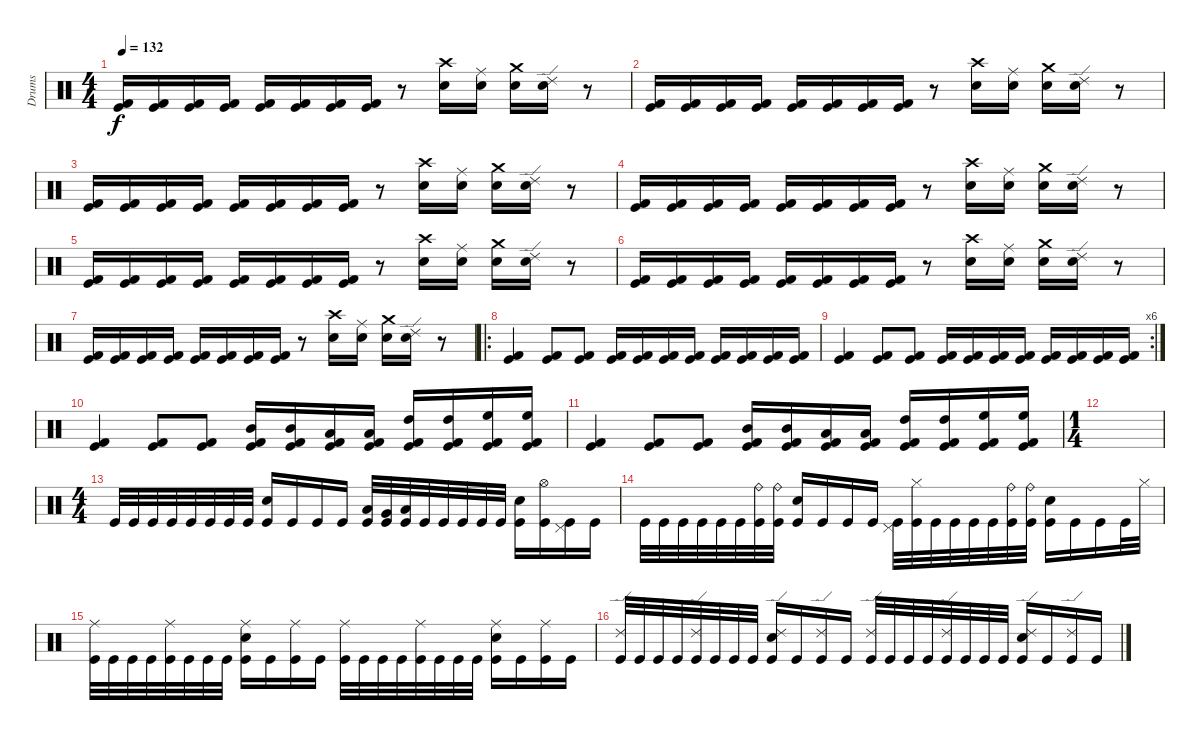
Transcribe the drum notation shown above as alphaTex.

\track ("Drums" "Drums") {instrument percussion}
\staff {score}
\articulation defaults
\ts (4 4)
\tempo 132
\clef neutral
\ks c
("Kick (hit)" "Kick (hit) 2").16{dy f} ("Kick (hit)" "Kick (hit) 2").16 ("Kick (hit)" "Kick (hit) 2").16 ("Kick (hit)" "Kick (hit) 2").16 ("Kick (hit)" "Kick (hit) 2").16 ("Kick (hit)" "Kick (hit) 2").16 ("Kick (hit)" "Kick (hit) 2").16 ("Kick (hit)" "Kick (hit) 2").16 r.8 ("Snare (hit) 2" "Crash high (hit)").16 ("Ride (middle)" "Snare (hit) 2").16 ("Snare (hit) 2" "Crash medium (hit)").16 ("Ride (edge) 2" "Snare (hit) 2").16 r.8 |
("Kick (hit)" "Kick (hit) 2").16 ("Kick (hit)" "Kick (hit) 2").16 ("Kick (hit)" "Kick (hit) 2").16 ("Kick (hit)" "Kick (hit) 2").16 ("Kick (hit)" "Kick (hit) 2").16 ("Kick (hit)" "Kick (hit) 2").16 ("Kick (hit)" "Kick (hit) 2").16 ("Kick (hit)" "Kick (hit) 2").16 r.8 ("Snare (hit) 2" "Crash high (hit)").16 ("Ride (middle)" "Snare (hit) 2").16 ("Snare (hit) 2" "Crash medium (hit)").16 ("Ride (edge) 2" "Snare (hit) 2").16 r.8 |
("Kick (hit)" "Kick (hit) 2").16 ("Kick (hit)" "Kick (hit) 2").16 ("Kick (hit)" "Kick (hit) 2").16 ("Kick (hit)" "Kick (hit) 2").16 ("Kick (hit)" "Kick (hit) 2").16 ("Kick (hit)" "Kick (hit) 2").16 ("Kick (hit)" "Kick (hit) 2").16 ("Kick (hit)" "Kick (hit) 2").16 r.8 ("Snare (hit) 2" "Crash high (hit)").16 ("Ride (middle)" "Snare (hit) 2").16 ("Snare (hit) 2" "Crash medium (hit)").16 ("Ride (edge) 2" "Snare (hit) 2").16 r.8 |
("Kick (hit)" "Kick (hit) 2").16 ("Kick (hit)" "Kick (hit) 2").16 ("Kick (hit)" "Kick (hit) 2").16 ("Kick (hit)" "Kick (hit) 2").16 ("Kick (hit)" "Kick (hit) 2").16 ("Kick (hit)" "Kick (hit) 2").16 ("Kick (hit)" "Kick (hit) 2").16 ("Kick (hit)" "Kick (hit) 2").16 r.8 ("Snare (hit) 2" "Crash high (hit)").16 ("Ride (middle)" "Snare (hit) 2").16 ("Snare (hit) 2" "Crash medium (hit)").16 ("Ride (edge) 2" "Snare (hit) 2").16 r.8 |
("Kick (hit)" "Kick (hit) 2").16 ("Kick (hit)" "Kick (hit) 2").16 ("Kick (hit)" "Kick (hit) 2").16 ("Kick (hit)" "Kick (hit) 2").16 ("Kick (hit)" "Kick (hit) 2").16 ("Kick (hit)" "Kick (hit) 2").16 ("Kick (hit)" "Kick (hit) 2").16 ("Kick (hit)" "Kick (hit) 2").16 r.8 ("Snare (hit) 2" "Crash high (hit)").16 ("Ride (middle)" "Snare (hit) 2").16 ("Snare (hit) 2" "Crash medium (hit)").16 ("Ride (edge) 2" "Snare (hit) 2").16 r.8 |
("Kick (hit)" "Kick (hit) 2").16 ("Kick (hit)" "Kick (hit) 2").16 ("Kick (hit)" "Kick (hit) 2").16 ("Kick (hit)" "Kick (hit) 2").16 ("Kick (hit)" "Kick (hit) 2").16 ("Kick (hit)" "Kick (hit) 2").16 ("Kick (hit)" "Kick (hit) 2").16 ("Kick (hit)" "Kick (hit) 2").16 r.8 ("Snare (hit) 2" "Crash high (hit)").16 ("Ride (middle)" "Snare (hit) 2").16 ("Snare (hit) 2" "Crash medium (hit)").16 ("Ride (edge) 2" "Snare (hit) 2").16 r.8 |
("Kick (hit)" "Kick (hit) 2").16 ("Kick (hit)" "Kick (hit) 2").16 ("Kick (hit)" "Kick (hit) 2").16 ("Kick (hit)" "Kick (hit) 2").16 ("Kick (hit)" "Kick (hit) 2").16 ("Kick (hit)" "Kick (hit) 2").16 ("Kick (hit)" "Kick (hit) 2").16 ("Kick (hit)" "Kick (hit) 2").16 r.8 ("Snare (hit) 2" "Crash high (hit)").16 ("Ride (middle)" "Snare (hit) 2").16 ("Snare (hit) 2" "Crash medium (hit)").16 ("Ride (edge) 2" "Snare (hit) 2").16 r.8 |
\ro
("Kick (hit)" "Kick (hit) 2").4 ("Kick (hit)" "Kick (hit) 2").8 ("Kick (hit)" "Kick (hit) 2").8 ("Kick (hit)" "Kick (hit) 2").16 ("Kick (hit)" "Kick (hit) 2").16 ("Kick (hit)" "Kick (hit) 2").16 ("Kick (hit)" "Kick (hit) 2").16 ("Kick (hit)" "Kick (hit) 2").16 ("Kick (hit)" "Kick (hit) 2").16 ("Kick (hit)" "Kick (hit) 2").16 ("Kick (hit)" "Kick (hit) 2").16 |
\rc 6
("Kick (hit)" "Kick (hit) 2").4 ("Kick (hit)" "Kick (hit) 2").8 ("Kick (hit)" "Kick (hit) 2").8 ("Kick (hit)" "Kick (hit) 2").16 ("Kick (hit)" "Kick (hit) 2").16 ("Kick (hit)" "Kick (hit) 2").16 ("Kick (hit)" "Kick (hit) 2").16 ("Kick (hit)" "Kick (hit) 2").16 ("Kick (hit)" "Kick (hit) 2").16 ("Kick (hit)" "Kick (hit) 2").16 ("Kick (hit)" "Kick (hit) 2").16 |
("Kick (hit)" "Kick (hit) 2").4 ("Kick (hit)" "Kick (hit) 2").8 ("Kick (hit)" "Kick (hit) 2").8 ("Kick (hit)" "Kick (hit) 2" "Mid Tom (hit)").16 ("Kick (hit)" "Kick (hit) 2" "Mid Tom (hit)").16 ("Kick (hit)" "Kick (hit) 2" "Low Tom (hit)").16 ("Kick (hit)" "Kick (hit) 2" "Low Tom (hit)").16 ("Kick (hit)" "Kick (hit) 2" "High Tom (hit)").16 ("Kick (hit)" "Kick (hit) 2" "High Tom (hit)").16 ("Kick (hit)" "Kick (hit) 2" "High Floor Tom (hit)").16 ("Kick (hit)" "Kick (hit) 2" "High Floor Tom (hit)").16 |
("Kick (hit)" "Kick (hit) 2").4 ("Kick (hit)" "Kick (hit) 2").8 ("Kick (hit)" "Kick (hit) 2").8 ("Kick (hit)" "Kick (hit) 2" "Mid Tom (hit)").16 ("Kick (hit)" "Kick (hit) 2" "Mid Tom (hit)").16 ("Kick (hit)" "Kick (hit) 2" "Low Tom (hit)").16 ("Kick (hit)" "Kick (hit) 2" "Low Tom (hit)").16 ("Kick (hit)" "Kick (hit) 2" "High Tom (hit)").16 ("Kick (hit)" "Kick (hit) 2" "High Tom (hit)").16 ("Kick (hit)" "Kick (hit) 2" "High Floor Tom (hit)").16 ("Kick (hit)" "Kick (hit) 2" "High Floor Tom (hit)").16 |
\ts (1 4)
|
\ts (4 4)
"Kick (hit)".32 "Kick (hit)".32 "Kick (hit)".32 "Kick (hit)".32 "Kick (hit)".32 "Kick (hit)".32 "Kick (hit)".32 "Kick (hit)".32 ("Snare (hit) 2" "Kick (hit)").16 "Kick (hit)".16 "Kick (hit)".16 "Kick (hit)".16 ("Low Floor Tom (hit)" "Kick (hit)").32 ("Very Low Tom (hit)" "Kick (hit)").32 ("Low Tom (hit)" "Kick (hit)").32 "Kick (hit)".32 "Kick (hit)".32 "Kick (hit)".32 "Kick (hit)".32 "Kick (hit)".32 ("Snare (hit) 2" "Kick (hit)").16 ("Hi-Hat (open)" "Kick (hit)").16 ("Pedal Hi-Hat (hit)" "Kick (hit)").16 "Kick (hit)".16 |
"Kick (hit)".32 "Kick (hit)".32 "Kick (hit)".32 "Kick (hit)".32 "Kick (hit)".32 "Kick (hit)".32 ("Ride (bell)" "Kick (hit)").32 ("Ride (bell)" "Kick (hit)").32 ("Snare (hit) 2" "Kick (hit)").16 "Kick (hit)".16 "Kick (hit)".16 "Kick (hit)".16 ("Pedal Hi-Hat (hit)" "Kick (hit)").32 ("Hi-Hat (closed)" "Kick (hit)").32 "Kick (hit)".32 "Kick (hit)".32 "Kick (hit)".32 "Kick (hit)".32 ("Ride (bell)" "Kick (hit)").32 ("Ride (bell)" "Kick (hit)").32 ("Snare (hit) 2" "Kick (hit)").16 "Kick (hit)".16 "Kick (hit)".16 "Kick (hit)".32 "Hi-Hat (closed)".32 |
("Ride (middle)" "Kick (hit)").32 "Kick (hit)".32 "Kick (hit)".32 "Kick (hit)".32 ("Ride (middle)" "Kick (hit)").32 "Kick (hit)".32 "Kick (hit)".32 "Kick (hit)".32 ("Snare (hit) 2" "Ride (middle)" "Kick (hit)").16 "Kick (hit)".16 ("Ride (middle)" "Kick (hit)").16 "Kick (hit)".16 ("Ride (middle)" "Kick (hit)").32 "Kick (hit)".32 "Kick (hit)".32 "Kick (hit)".32 ("Ride (middle)" "Kick (hit)").32 "Kick (hit)".32 "Kick (hit)".32 "Kick (hit)".32 ("Snare (hit) 2" "Ride (middle)" "Kick (hit)").16 "Kick (hit)".16 ("Ride (middle)" "Kick (hit)").16 "Kick (hit)".16 |
("Ride (edge) 2" "Kick (hit)").32 "Kick (hit)".32 "Kick (hit)".32 "Kick (hit)".32 ("Ride (edge) 2" "Kick (hit)").32 "Kick (hit)".32 "Kick (hit)".32 "Kick (hit)".32 ("Snare (hit) 2" "Ride (edge) 2" "Kick (hit)").16 "Kick (hit)".16 ("Ride (edge) 2" "Kick (hit)").16 "Kick (hit)".16 ("Ride (edge) 2" "Kick (hit)").32 "Kick (hit)".32 "Kick (hit)".32 "Kick (hit)".32 ("Ride (edge) 2" "Kick (hit)").32 "Kick (hit)".32 "Kick (hit)".32 "Kick (hit)".32 ("Snare (hit) 2" "Ride (edge) 2" "Kick (hit)").16 "Kick (hit)".16 ("Ride (edge) 2" "Kick (hit)").16 "Kick (hit)".16
